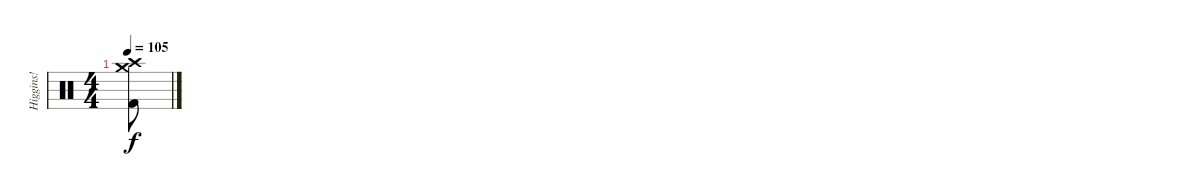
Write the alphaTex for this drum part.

\track ("Higgins!" "Higgins!") {instrument percussion}
\staff {score}
\articulation defaults
\ts (4 4)
\tempo 105
\clef neutral
\ks c
("Crash high (hit)" "Crash medium (hit)" "Kick (hit) 2").8{dy f}
